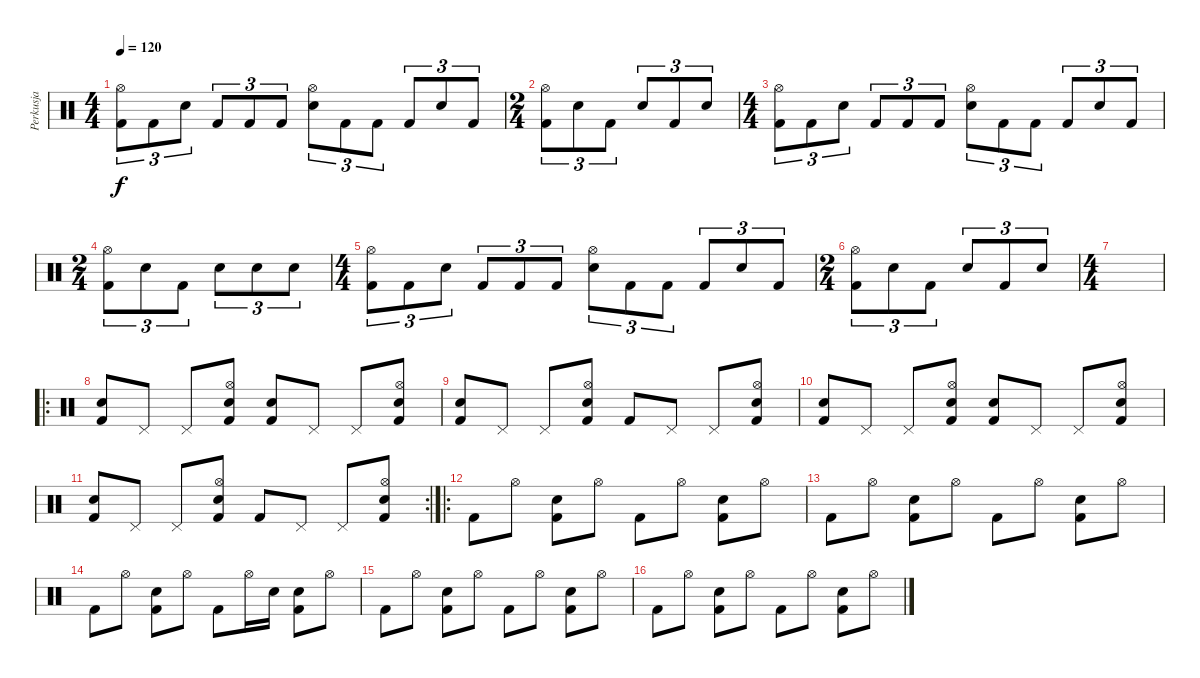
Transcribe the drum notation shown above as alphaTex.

\track ("Perkusja" "Perkusja") {instrument percussion}
\staff {score}
\articulation defaults
\ts (4 4)
\tempo 120
\clef neutral
\ks c
("Kick (hit) 2" "Hi-Hat (open)").8{tu (3 2) dy f} "Kick (hit) 2".8{tu (3 2)} "Snare (hit) 2".8{tu (3 2)} "Kick (hit) 2".8{tu (3 2)} "Kick (hit) 2".8{tu (3 2)} "Kick (hit) 2".8{tu (3 2)} ("Snare (hit) 2" "Hi-Hat (open)").8{tu (3 2)} "Kick (hit) 2".8{tu (3 2)} "Kick (hit) 2".8{tu (3 2)} "Kick (hit) 2".8{tu (3 2)} "Snare (hit) 2".8{tu (3 2)} "Kick (hit) 2".8{tu (3 2)} |
\ts (2 4)
("Kick (hit) 2" "Hi-Hat (open)").8{tu (3 2)} "Snare (hit) 2".8{tu (3 2)} "Kick (hit) 2".8{tu (3 2)} "Snare (hit) 2".8{tu (3 2)} "Kick (hit) 2".8{tu (3 2)} "Snare (hit) 2".8{tu (3 2)} |
\ts (4 4)
("Kick (hit) 2" "Hi-Hat (open)").8{tu (3 2)} "Kick (hit) 2".8{tu (3 2)} "Snare (hit) 2".8{tu (3 2)} "Kick (hit) 2".8{tu (3 2)} "Kick (hit) 2".8{tu (3 2)} "Kick (hit) 2".8{tu (3 2)} ("Snare (hit) 2" "Hi-Hat (open)").8{tu (3 2)} "Kick (hit) 2".8{tu (3 2)} "Kick (hit) 2".8{tu (3 2)} "Kick (hit) 2".8{tu (3 2)} "Snare (hit) 2".8{tu (3 2)} "Kick (hit) 2".8{tu (3 2)} |
\ts (2 4)
("Kick (hit) 2" "Hi-Hat (open)").8{tu (3 2)} "Snare (hit) 2".8{tu (3 2)} "Kick (hit) 2".8{tu (3 2)} "Snare (hit) 2".8{tu (3 2)} "Snare (hit) 2".8{tu (3 2)} "Snare (hit) 2".8{tu (3 2)} |
\ts (4 4)
("Kick (hit) 2" "Hi-Hat (open)").8{tu (3 2)} "Kick (hit) 2".8{tu (3 2)} "Snare (hit) 2".8{tu (3 2)} "Kick (hit) 2".8{tu (3 2)} "Kick (hit) 2".8{tu (3 2)} "Kick (hit) 2".8{tu (3 2)} ("Snare (hit) 2" "Hi-Hat (open)").8{tu (3 2)} "Kick (hit) 2".8{tu (3 2)} "Kick (hit) 2".8{tu (3 2)} "Kick (hit) 2".8{tu (3 2)} "Snare (hit) 2".8{tu (3 2)} "Kick (hit) 2".8{tu (3 2)} |
\ts (2 4)
("Kick (hit) 2" "Hi-Hat (open)").8{tu (3 2)} "Snare (hit) 2".8{tu (3 2)} "Kick (hit) 2".8{tu (3 2)} "Snare (hit) 2".8{tu (3 2)} "Kick (hit) 2".8{tu (3 2)} "Snare (hit) 2".8{tu (3 2)} |
\ts (4 4)
|
\ro
("Snare (hit) 2" "Kick (hit) 2").8 "Pedal Hi-Hat (hit)".8 "Pedal Hi-Hat (hit)".8 ("Snare (hit) 2" "Hi-Hat (open)" "Kick (hit) 2").8 ("Snare (hit) 2" "Kick (hit) 2").8 "Pedal Hi-Hat (hit)".8 "Pedal Hi-Hat (hit)".8 ("Snare (hit) 2" "Hi-Hat (open)" "Kick (hit) 2").8 |
("Snare (hit) 2" "Kick (hit) 2").8 "Pedal Hi-Hat (hit)".8 "Pedal Hi-Hat (hit)".8 ("Snare (hit) 2" "Hi-Hat (open)" "Kick (hit) 2").8 "Kick (hit) 2".8 "Pedal Hi-Hat (hit)".8 "Pedal Hi-Hat (hit)".8 ("Snare (hit) 2" "Hi-Hat (open)" "Kick (hit) 2").8 |
("Snare (hit) 2" "Kick (hit) 2").8 "Pedal Hi-Hat (hit)".8 "Pedal Hi-Hat (hit)".8 ("Snare (hit) 2" "Hi-Hat (open)" "Kick (hit) 2").8 ("Snare (hit) 2" "Kick (hit) 2").8 "Pedal Hi-Hat (hit)".8 "Pedal Hi-Hat (hit)".8 ("Snare (hit) 2" "Hi-Hat (open)" "Kick (hit) 2").8 |
\rc 2
("Snare (hit) 2" "Kick (hit) 2").8 "Pedal Hi-Hat (hit)".8 "Pedal Hi-Hat (hit)".8 ("Snare (hit) 2" "Hi-Hat (open)" "Kick (hit) 2").8 "Kick (hit) 2".8 "Pedal Hi-Hat (hit)".8 "Pedal Hi-Hat (hit)".8 ("Snare (hit) 2" "Hi-Hat (open)" "Kick (hit) 2").8 |
\ro "Kick (hit) 2".8 "Hi-Hat (open)".8
("Snare (hit) 2" "Kick (hit) 2").8 "Hi-Hat (open)".8 "Kick (hit) 2".8 "Hi-Hat (open)".8 ("Snare (hit) 2" "Kick (hit) 2").8 "Hi-Hat (open)".8 |
"Kick (hit) 2".8 "Hi-Hat (open)".8 ("Snare (hit) 2" "Kick (hit) 2").8 "Hi-Hat (open)".8 "Kick (hit) 2".8 "Hi-Hat (open)".8 ("Snare (hit) 2" "Kick (hit) 2").8 "Hi-Hat (open)".8 |
"Kick (hit) 2".8 "Hi-Hat (open)".8 ("Snare (hit) 2" "Kick (hit) 2").8 "Hi-Hat (open)".8 "Kick (hit) 2".8 "Hi-Hat (open)".16 "Snare (hit) 2".16 ("Snare (hit) 2" "Kick (hit) 2").8 "Hi-Hat (open)".8 |
"Kick (hit) 2".8 "Hi-Hat (open)".8 ("Snare (hit) 2" "Kick (hit) 2").8 "Hi-Hat (open)".8 "Kick (hit) 2".8 "Hi-Hat (open)".8 ("Snare (hit) 2" "Kick (hit) 2").8 "Hi-Hat (open)".8 |
"Kick (hit) 2".8 "Hi-Hat (open)".8 ("Snare (hit) 2" "Kick (hit) 2").8 "Hi-Hat (open)".8 "Kick (hit) 2".8 "Hi-Hat (open)".8 ("Snare (hit) 2" "Kick (hit) 2").8 "Hi-Hat (open)".8
